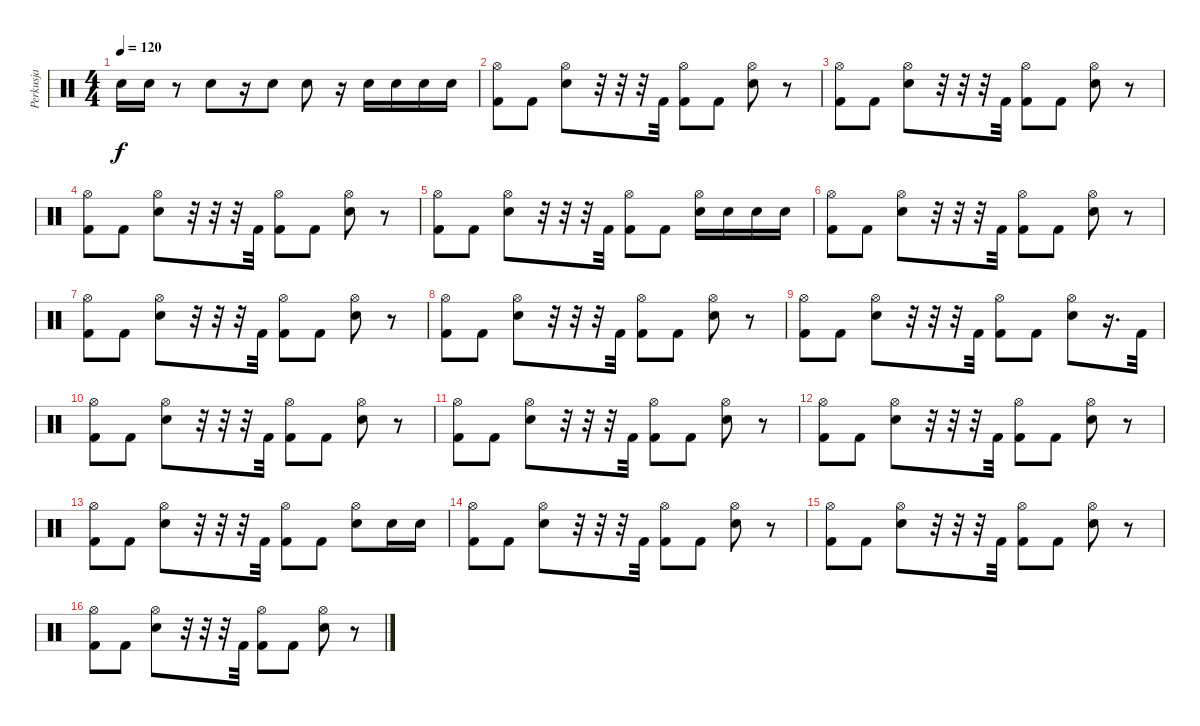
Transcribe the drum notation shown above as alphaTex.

\track ("Perkusja" "Perkusja") {instrument percussion}
\staff {score}
\articulation defaults
\ts (4 4)
\tempo 120
\clef neutral
\ks c "Electric Snare (hit)".16{dy f} "Electric Snare (hit)".16
r.8 "Electric Snare (hit)".8 r.16 "Electric Snare (hit)".8 "Electric Snare (hit)".8 r.16 "Electric Snare (hit)".16 "Electric Snare (hit)".16 "Electric Snare (hit)".16 "Electric Snare (hit)".16 |
("Hi-Hat (open)" "Kick (hit) 2").8 "Kick (hit) 2".8 ("Hi-Hat (open)" "Electric Snare (hit)").8 r.32 r.32 r.32 "Kick (hit) 2".32 ("Hi-Hat (open)" "Kick (hit) 2").8 "Kick (hit) 2".8 ("Hi-Hat (open)" "Electric Snare (hit)").8 r.8 |
("Hi-Hat (open)" "Kick (hit) 2").8 "Kick (hit) 2".8 ("Hi-Hat (open)" "Electric Snare (hit)").8 r.32 r.32 r.32 "Kick (hit) 2".32 ("Hi-Hat (open)" "Kick (hit) 2").8 "Kick (hit) 2".8 ("Hi-Hat (open)" "Electric Snare (hit)").8 r.8 |
("Hi-Hat (open)" "Kick (hit) 2").8 "Kick (hit) 2".8 ("Hi-Hat (open)" "Electric Snare (hit)").8 r.32 r.32 r.32 "Kick (hit) 2".32 ("Hi-Hat (open)" "Kick (hit) 2").8 "Kick (hit) 2".8 ("Hi-Hat (open)" "Electric Snare (hit)").8 r.8 |
("Hi-Hat (open)" "Kick (hit) 2").8 "Kick (hit) 2".8 ("Hi-Hat (open)" "Electric Snare (hit)").8 r.32 r.32 r.32 "Kick (hit) 2".32 ("Hi-Hat (open)" "Kick (hit) 2").8 "Kick (hit) 2".8 ("Hi-Hat (open)" "Electric Snare (hit)").16 "Electric Snare (hit)".16 "Electric Snare (hit)".16 "Electric Snare (hit)".16 |
("Hi-Hat (open)" "Kick (hit) 2").8 "Kick (hit) 2".8 ("Hi-Hat (open)" "Electric Snare (hit)").8 r.32 r.32 r.32 "Kick (hit) 2".32 ("Hi-Hat (open)" "Kick (hit) 2").8 "Kick (hit) 2".8 ("Hi-Hat (open)" "Electric Snare (hit)").8 r.8 |
("Hi-Hat (open)" "Kick (hit) 2").8 "Kick (hit) 2".8 ("Hi-Hat (open)" "Electric Snare (hit)").8 r.32 r.32 r.32 "Kick (hit) 2".32 ("Hi-Hat (open)" "Kick (hit) 2").8 "Kick (hit) 2".8 ("Hi-Hat (open)" "Electric Snare (hit)").8 r.8 |
("Hi-Hat (open)" "Kick (hit) 2").8 "Kick (hit) 2".8 ("Hi-Hat (open)" "Electric Snare (hit)").8 r.32 r.32 r.32 "Kick (hit) 2".32 ("Hi-Hat (open)" "Kick (hit) 2").8 "Kick (hit) 2".8 ("Hi-Hat (open)" "Electric Snare (hit)").8 r.8 |
("Hi-Hat (open)" "Kick (hit) 2").8 "Kick (hit) 2".8 ("Hi-Hat (open)" "Electric Snare (hit)").8 r.32 r.32 r.32 "Kick (hit) 2".32 ("Hi-Hat (open)" "Kick (hit) 2").8 "Kick (hit) 2".8 ("Hi-Hat (open)" "Electric Snare (hit)").8 r.16{d} "Kick (hit) 2".32 |
("Hi-Hat (open)" "Kick (hit) 2").8 "Kick (hit) 2".8 ("Hi-Hat (open)" "Electric Snare (hit)").8 r.32 r.32 r.32 "Kick (hit) 2".32 ("Hi-Hat (open)" "Kick (hit) 2").8 "Kick (hit) 2".8 ("Hi-Hat (open)" "Electric Snare (hit)").8 r.8 |
("Hi-Hat (open)" "Kick (hit) 2").8 "Kick (hit) 2".8 ("Hi-Hat (open)" "Electric Snare (hit)").8 r.32 r.32 r.32 "Kick (hit) 2".32 ("Hi-Hat (open)" "Kick (hit) 2").8 "Kick (hit) 2".8 ("Hi-Hat (open)" "Electric Snare (hit)").8 r.8 |
("Hi-Hat (open)" "Kick (hit) 2").8 "Kick (hit) 2".8 ("Hi-Hat (open)" "Electric Snare (hit)").8 r.32 r.32 r.32 "Kick (hit) 2".32 ("Hi-Hat (open)" "Kick (hit) 2").8 "Kick (hit) 2".8 ("Hi-Hat (open)" "Electric Snare (hit)").8 r.8 |
("Hi-Hat (open)" "Kick (hit) 2").8 "Kick (hit) 2".8 ("Hi-Hat (open)" "Electric Snare (hit)").8 r.32 r.32 r.32 "Kick (hit) 2".32 ("Hi-Hat (open)" "Kick (hit) 2").8 "Kick (hit) 2".8 ("Hi-Hat (open)" "Electric Snare (hit)").8 "Electric Snare (hit)".16 "Electric Snare (hit)".16 |
("Hi-Hat (open)" "Kick (hit) 2").8 "Kick (hit) 2".8 ("Hi-Hat (open)" "Electric Snare (hit)").8 r.32 r.32 r.32 "Kick (hit) 2".32 ("Hi-Hat (open)" "Kick (hit) 2").8 "Kick (hit) 2".8 ("Hi-Hat (open)" "Electric Snare (hit)").8 r.8 |
("Hi-Hat (open)" "Kick (hit) 2").8 "Kick (hit) 2".8 ("Hi-Hat (open)" "Electric Snare (hit)").8 r.32 r.32 r.32 "Kick (hit) 2".32 ("Hi-Hat (open)" "Kick (hit) 2").8 "Kick (hit) 2".8 ("Hi-Hat (open)" "Electric Snare (hit)").8 r.8 |
("Hi-Hat (open)" "Kick (hit) 2").8 "Kick (hit) 2".8 ("Hi-Hat (open)" "Electric Snare (hit)").8 r.32 r.32 r.32 "Kick (hit) 2".32 ("Hi-Hat (open)" "Kick (hit) 2").8 "Kick (hit) 2".8 ("Hi-Hat (open)" "Electric Snare (hit)").8 r.8
